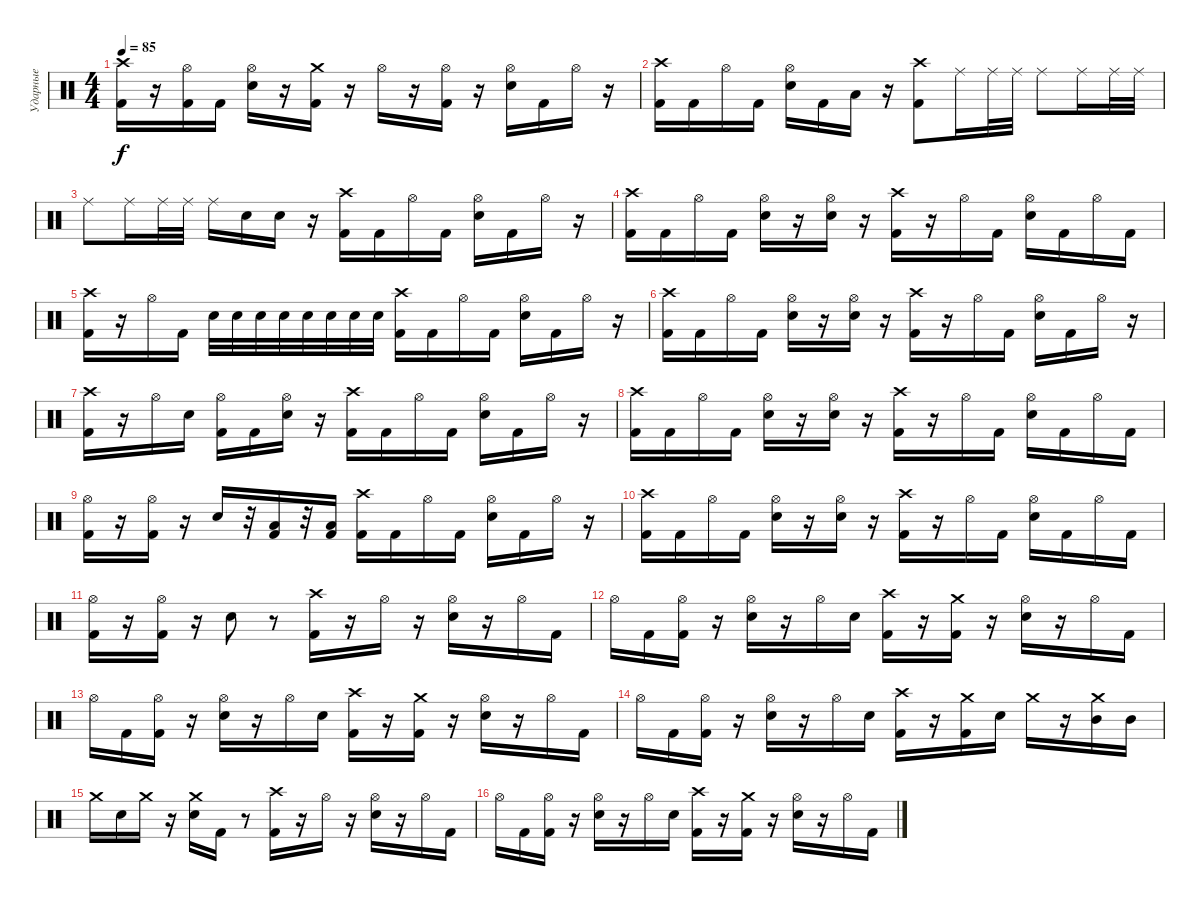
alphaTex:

\track ("Ударные" "Ударные") {instrument percussion}
\staff {score}
\articulation defaults
\ts (4 4)
\tempo 85
\clef neutral
\ks c
("Crash high (hit)" "Kick (hit) 2").16{dy f} r.16 ("Hi-Hat (open)" "Kick (hit) 2").16 "Kick (hit) 2".16 ("Hi-Hat (open)" "Electric Snare (hit)").16 r.16 ("Crash medium (hit)" "Kick (hit) 2").16 r.16 "Hi-Hat (open)".16 r.16 ("Hi-Hat (open)" "Kick (hit) 2").16 r.16 ("Hi-Hat (open)" "Electric Snare (hit)").16 "Kick (hit) 2".16 "Hi-Hat (open)".16 r.16 |
("Crash high (hit)" "Kick (hit) 2").16 "Kick (hit) 2".16 "Hi-Hat (open)".16 "Kick (hit) 2".16 ("Hi-Hat (open)" "Electric Snare (hit)").16 "Kick (hit) 2".16 "Low Floor Tom (hit)".16 r.16 ("Crash high (hit)" "Kick (hit) 2").8 "Ride (middle)".16 "Ride (middle)".32 "Ride (middle)".32 "Ride (middle)".8 "Ride (middle)".16 "Ride (middle)".32 "Ride (middle)".32 |
"Ride (middle)".8 "Ride (middle)".16 "Ride (middle)".32 "Ride (middle)".32 "Ride (middle)".16 "Electric Snare (hit)".16 "Electric Snare (hit)".16 r.16 ("Crash high (hit)" "Kick (hit) 2").16 "Kick (hit) 2".16 "Hi-Hat (open)".16 "Kick (hit) 2".16 ("Hi-Hat (open)" "Electric Snare (hit)").16 "Kick (hit) 2".16 "Hi-Hat (open)".16 r.16 |
("Crash high (hit)" "Kick (hit) 2").16 "Kick (hit) 2".16 "Hi-Hat (open)".16 "Kick (hit) 2".16 ("Hi-Hat (open)" "Electric Snare (hit)").16 r.16 ("Hi-Hat (open)" "Electric Snare (hit)").16 r.16 ("Crash high (hit)" "Kick (hit) 2").16 r.16 "Hi-Hat (open)".16 "Kick (hit) 2".16 ("Hi-Hat (open)" "Electric Snare (hit)").16 "Kick (hit) 2".16 "Hi-Hat (open)".16 "Kick (hit) 2".16 |
("Crash high (hit)" "Kick (hit) 2").16 r.16 "Hi-Hat (open)".16 "Kick (hit) 2".16 "Electric Snare (hit)".32 "Electric Snare (hit)".32 "Electric Snare (hit)".32 "Electric Snare (hit)".32 "Electric Snare (hit)".32 "Electric Snare (hit)".32 "Electric Snare (hit)".32 "Electric Snare (hit)".32 ("Crash high (hit)" "Kick (hit) 2").16 "Kick (hit) 2".16 "Hi-Hat (open)".16 "Kick (hit) 2".16 ("Hi-Hat (open)" "Electric Snare (hit)").16 "Kick (hit) 2".16 "Hi-Hat (open)".16 r.16 |
("Crash high (hit)" "Kick (hit) 2").16 "Kick (hit) 2".16 "Hi-Hat (open)".16 "Kick (hit) 2".16 ("Hi-Hat (open)" "Electric Snare (hit)").16 r.16 ("Hi-Hat (open)" "Electric Snare (hit)").16 r.16 ("Crash high (hit)" "Kick (hit) 2").16 r.16 "Hi-Hat (open)".16 "Kick (hit) 2".16 ("Hi-Hat (open)" "Electric Snare (hit)").16 "Kick (hit) 2".16 "Hi-Hat (open)".16 r.16 |
("Crash high (hit)" "Kick (hit) 2").16 r.16 "Hi-Hat (open)".16 "Electric Snare (hit)".16 ("Hi-Hat (open)" "Kick (hit) 2").16 "Kick (hit) 2".16 ("Hi-Hat (open)" "Electric Snare (hit)").16 r.16 ("Crash high (hit)" "Kick (hit) 2").16 "Kick (hit) 2".16 "Hi-Hat (open)".16 "Kick (hit) 2".16 ("Hi-Hat (open)" "Electric Snare (hit)").16 "Kick (hit) 2".16 "Hi-Hat (open)".16 r.16 |
("Crash high (hit)" "Kick (hit) 2").16 "Kick (hit) 2".16 "Hi-Hat (open)".16 "Kick (hit) 2".16 ("Hi-Hat (open)" "Electric Snare (hit)").16 r.16 ("Hi-Hat (open)" "Electric Snare (hit)").16 r.16 ("Crash high (hit)" "Kick (hit) 2").16 r.16 "Hi-Hat (open)".16 "Kick (hit) 2".16 ("Hi-Hat (open)" "Electric Snare (hit)").16 "Kick (hit) 2".16 "Hi-Hat (open)".16 "Kick (hit) 2".16 |
("Hi-Hat (open)" "Kick (hit) 2").16 r.16 ("Hi-Hat (open)" "Kick (hit) 2").16 r.16 "Electric Snare (hit)".16 r.32 ("Low Floor Tom (hit)" "Kick (hit) 2").16 r.32 ("Low Floor Tom (hit)" "Kick (hit) 2").16 ("Crash high (hit)" "Kick (hit) 2").16 "Kick (hit) 2".16 "Hi-Hat (open)".16 "Kick (hit) 2".16 ("Hi-Hat (open)" "Electric Snare (hit)").16 "Kick (hit) 2".16 "Hi-Hat (open)".16 r.16 |
("Crash high (hit)" "Kick (hit) 2").16 "Kick (hit) 2".16 "Hi-Hat (open)".16 "Kick (hit) 2".16 ("Hi-Hat (open)" "Electric Snare (hit)").16 r.16 ("Hi-Hat (open)" "Electric Snare (hit)").16 r.16 ("Crash high (hit)" "Kick (hit) 2").16 r.16 "Hi-Hat (open)".16 "Kick (hit) 2".16 ("Hi-Hat (open)" "Electric Snare (hit)").16 "Kick (hit) 2".16 "Hi-Hat (open)".16 "Kick (hit) 2".16 |
("Hi-Hat (open)" "Kick (hit) 2").16 r.16 ("Hi-Hat (open)" "Kick (hit) 2").16 r.16 "Electric Snare (hit)".8 r.8 ("Crash high (hit)" "Kick (hit) 2").16 r.16 "Hi-Hat (open)".16 r.16 ("Hi-Hat (open)" "Electric Snare (hit)").16 r.16 "Hi-Hat (open)".16 "Kick (hit) 2".16 |
"Hi-Hat (open)".16 "Kick (hit) 2".16 ("Hi-Hat (open)" "Kick (hit) 2").16 r.16 ("Hi-Hat (open)" "Electric Snare (hit)").16 r.16 "Hi-Hat (open)".16 "Electric Snare (hit)".16 ("Crash high (hit)" "Kick (hit) 2").16 r.16 ("Crash medium (hit)" "Kick (hit) 2").16 r.16 ("Hi-Hat (open)" "Electric Snare (hit)").16 r.16 "Hi-Hat (open)".16 "Kick (hit) 2".16 |
"Hi-Hat (open)".16 "Kick (hit) 2".16 ("Hi-Hat (open)" "Kick (hit) 2").16 r.16 ("Hi-Hat (open)" "Electric Snare (hit)").16 r.16 "Hi-Hat (open)".16 "Electric Snare (hit)".16 ("Crash high (hit)" "Kick (hit) 2").16 r.16 ("Crash medium (hit)" "Kick (hit) 2").16 r.16 ("Hi-Hat (open)" "Electric Snare (hit)").16 r.16 "Hi-Hat (open)".16 "Kick (hit) 2".16 |
"Hi-Hat (open)".16 "Kick (hit) 2".16 ("Hi-Hat (open)" "Kick (hit) 2").16 r.16 ("Hi-Hat (open)" "Electric Snare (hit)").16 r.16 "Hi-Hat (open)".16 "Electric Snare (hit)".16 ("Crash high (hit)" "Kick (hit) 2").16 r.16 ("Crash medium (hit)" "Kick (hit) 2").16 "Electric Snare (hit)".16 "Crash medium (hit)".16 r.16 ("Crash medium (hit)" "Mid Tom (hit)").16 "Mid Tom (hit)".16 |
"Crash medium (hit)".16 "Electric Snare (hit)".16 "Crash medium (hit)".16 r.16 ("Crash medium (hit)" "Electric Snare (hit)").16 "Kick (hit) 2".16 r.8 ("Crash high (hit)" "Kick (hit) 2").16 r.16 "Hi-Hat (open)".16 r.16 ("Hi-Hat (open)" "Electric Snare (hit)").16 r.16 "Hi-Hat (open)".16 "Kick (hit) 2".16 |
"Hi-Hat (open)".16 "Kick (hit) 2".16 ("Hi-Hat (open)" "Kick (hit) 2").16 r.16 ("Hi-Hat (open)" "Electric Snare (hit)").16 r.16 "Hi-Hat (open)".16 "Electric Snare (hit)".16 ("Crash high (hit)" "Kick (hit) 2").16 r.16 ("Crash medium (hit)" "Kick (hit) 2").16 r.16 ("Hi-Hat (open)" "Electric Snare (hit)").16 r.16 "Hi-Hat (open)".16 "Kick (hit) 2".16
